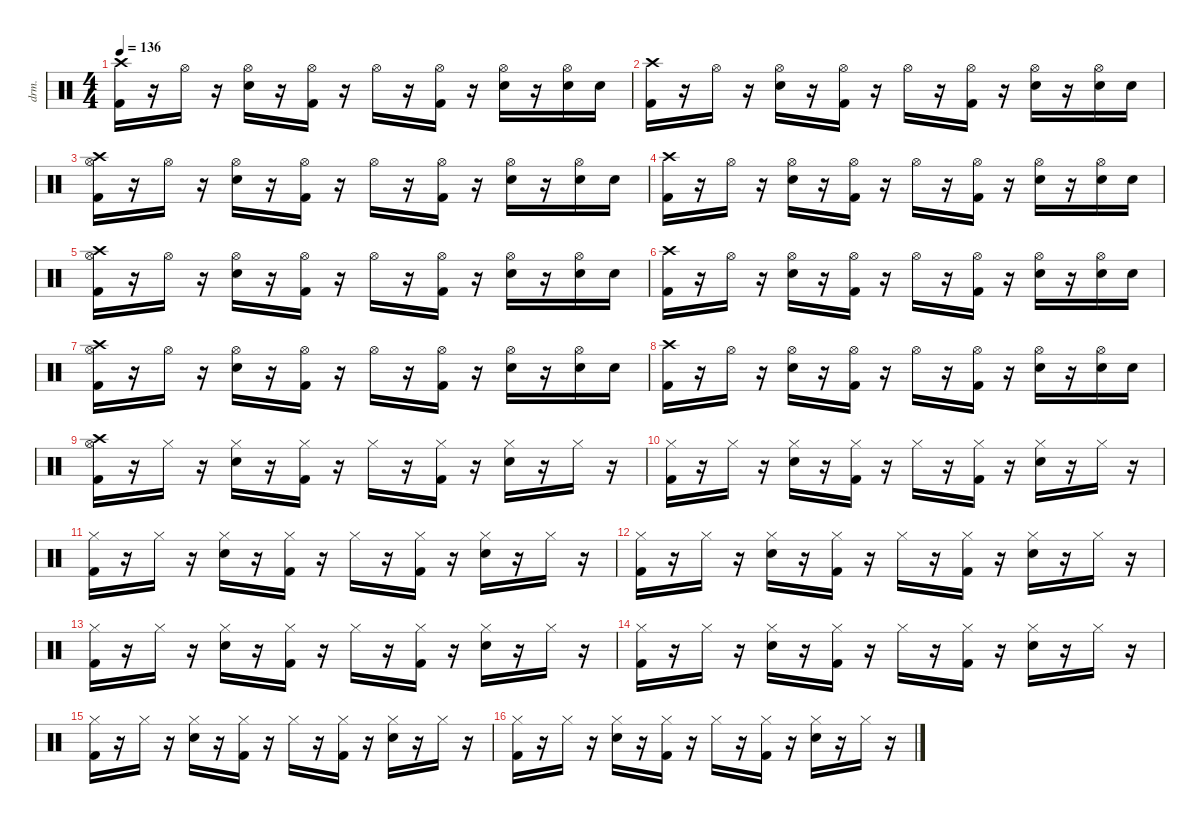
\defaultSystemsLayout 4
\hideDynamics
\bracketExtendMode nobrackets
\otherSystemsTrackNameOrientation horizontal
\track ("Drums" "drm.") {instrument percussion}
\staff {score}
\articulation defaults
\ts (4 4)
\tempo 136
\clef neutral
\ks c
("Kick (hit) 2" "Crash high (hit)").16{dy f} r.16 "Hi-Hat (open)".16 r.16 ("Snare (hit) 2" "Hi-Hat (open)").16 r.16 ("Kick (hit) 2" "Hi-Hat (open)").16 r.16 "Hi-Hat (open)".16 r.16 ("Kick (hit) 2" "Hi-Hat (open)").16 r.16 ("Snare (hit) 2" "Hi-Hat (open)").16 r.16 ("Snare (hit) 2" "Hi-Hat (open)").16 "Snare (hit) 2".16 |
("Kick (hit) 2" "Crash high (hit)").16 r.16 "Hi-Hat (open)".16 r.16 ("Snare (hit) 2" "Hi-Hat (open)").16 r.16 ("Kick (hit) 2" "Hi-Hat (open)").16 r.16 "Hi-Hat (open)".16 r.16 ("Kick (hit) 2" "Hi-Hat (open)").16 r.16 ("Snare (hit) 2" "Hi-Hat (open)").16 r.16 ("Snare (hit) 2" "Hi-Hat (open)").16 "Snare (hit) 2".16 |
("Kick (hit) 2" "Hi-Hat (open)" "Crash high (hit)").16 r.16 "Hi-Hat (open)".16 r.16 ("Snare (hit) 2" "Hi-Hat (open)").16 r.16 ("Kick (hit) 2" "Hi-Hat (open)").16 r.16 "Hi-Hat (open)".16 r.16 ("Kick (hit) 2" "Hi-Hat (open)").16 r.16 ("Snare (hit) 2" "Hi-Hat (open)").16 r.16 ("Snare (hit) 2" "Hi-Hat (open)").16 "Snare (hit) 2".16 |
("Kick (hit) 2" "Crash high (hit)").16 r.16 "Hi-Hat (open)".16 r.16 ("Snare (hit) 2" "Hi-Hat (open)").16 r.16 ("Kick (hit) 2" "Hi-Hat (open)").16 r.16 "Hi-Hat (open)".16 r.16 ("Kick (hit) 2" "Hi-Hat (open)").16 r.16 ("Snare (hit) 2" "Hi-Hat (open)").16 r.16 ("Snare (hit) 2" "Hi-Hat (open)").16 "Snare (hit) 2".16 |
("Kick (hit) 2" "Hi-Hat (open)" "Crash high (hit)").16 r.16 "Hi-Hat (open)".16 r.16 ("Snare (hit) 2" "Hi-Hat (open)").16 r.16 ("Kick (hit) 2" "Hi-Hat (open)").16 r.16 "Hi-Hat (open)".16 r.16 ("Kick (hit) 2" "Hi-Hat (open)").16 r.16 ("Snare (hit) 2" "Hi-Hat (open)").16 r.16 ("Snare (hit) 2" "Hi-Hat (open)").16 "Snare (hit) 2".16 |
("Kick (hit) 2" "Crash high (hit)").16 r.16 "Hi-Hat (open)".16 r.16 ("Snare (hit) 2" "Hi-Hat (open)").16 r.16 ("Kick (hit) 2" "Hi-Hat (open)").16 r.16 "Hi-Hat (open)".16 r.16 ("Kick (hit) 2" "Hi-Hat (open)").16 r.16 ("Snare (hit) 2" "Hi-Hat (open)").16 r.16 ("Snare (hit) 2" "Hi-Hat (open)").16 "Snare (hit) 2".16 |
("Kick (hit) 2" "Hi-Hat (open)" "Crash high (hit)").16 r.16 "Hi-Hat (open)".16 r.16 ("Snare (hit) 2" "Hi-Hat (open)").16 r.16 ("Kick (hit) 2" "Hi-Hat (open)").16 r.16 "Hi-Hat (open)".16 r.16 ("Kick (hit) 2" "Hi-Hat (open)").16 r.16 ("Snare (hit) 2" "Hi-Hat (open)").16 r.16 ("Snare (hit) 2" "Hi-Hat (open)").16 "Snare (hit) 2".16 |
("Kick (hit) 2" "Crash high (hit)").16 r.16 "Hi-Hat (open)".16 r.16 ("Snare (hit) 2" "Hi-Hat (open)").16 r.16 ("Kick (hit) 2" "Hi-Hat (open)").16 r.16 "Hi-Hat (open)".16 r.16 ("Kick (hit) 2" "Hi-Hat (open)").16 r.16 ("Snare (hit) 2" "Hi-Hat (open)").16 r.16 ("Snare (hit) 2" "Hi-Hat (open)").16 "Snare (hit) 2".16 |
("Kick (hit) 2" "Hi-Hat (open)" "Crash high (hit)").16 r.16 "Hi-Hat (closed)".16 r.16 ("Snare (hit) 2" "Hi-Hat (closed)").16 r.16 ("Kick (hit) 2" "Hi-Hat (closed)").16 r.16 "Hi-Hat (closed)".16 r.16 ("Kick (hit) 2" "Hi-Hat (closed)").16 r.16 ("Snare (hit) 2" "Hi-Hat (closed)").16 r.16 "Hi-Hat (closed)".16 r.16 |
("Kick (hit) 2" "Hi-Hat (closed)").16 r.16 "Hi-Hat (closed)".16 r.16 ("Snare (hit) 2" "Hi-Hat (closed)").16 r.16 ("Kick (hit) 2" "Hi-Hat (closed)").16 r.16 "Hi-Hat (closed)".16 r.16 ("Kick (hit) 2" "Hi-Hat (closed)").16 r.16 ("Snare (hit) 2" "Hi-Hat (closed)").16 r.16 "Hi-Hat (closed)".16 r.16 |
("Kick (hit) 2" "Hi-Hat (closed)").16 r.16 "Hi-Hat (closed)".16 r.16 ("Snare (hit) 2" "Hi-Hat (closed)").16 r.16 ("Kick (hit) 2" "Hi-Hat (closed)").16 r.16 "Hi-Hat (closed)".16 r.16 ("Kick (hit) 2" "Hi-Hat (closed)").16 r.16 ("Snare (hit) 2" "Hi-Hat (closed)").16 r.16 "Hi-Hat (closed)".16 r.16 |
("Kick (hit) 2" "Hi-Hat (closed)").16 r.16 "Hi-Hat (closed)".16 r.16 ("Snare (hit) 2" "Hi-Hat (closed)").16 r.16 ("Kick (hit) 2" "Hi-Hat (closed)").16 r.16 "Hi-Hat (closed)".16 r.16 ("Kick (hit) 2" "Hi-Hat (closed)").16 r.16 ("Snare (hit) 2" "Hi-Hat (closed)").16 r.16 "Hi-Hat (closed)".16 r.16 |
("Kick (hit) 2" "Hi-Hat (closed)").16 r.16 "Hi-Hat (closed)".16 r.16 ("Snare (hit) 2" "Hi-Hat (closed)").16 r.16 ("Kick (hit) 2" "Hi-Hat (closed)").16 r.16 "Hi-Hat (closed)".16 r.16 ("Kick (hit) 2" "Hi-Hat (closed)").16 r.16 ("Snare (hit) 2" "Hi-Hat (closed)").16 r.16 "Hi-Hat (closed)".16 r.16 |
("Kick (hit) 2" "Hi-Hat (closed)").16 r.16 "Hi-Hat (closed)".16 r.16 ("Snare (hit) 2" "Hi-Hat (closed)").16 r.16 ("Kick (hit) 2" "Hi-Hat (closed)").16 r.16 "Hi-Hat (closed)".16 r.16 ("Kick (hit) 2" "Hi-Hat (closed)").16 r.16 ("Snare (hit) 2" "Hi-Hat (closed)").16 r.16 "Hi-Hat (closed)".16 r.16 |
("Kick (hit) 2" "Hi-Hat (closed)").16 r.16 "Hi-Hat (closed)".16 r.16 ("Snare (hit) 2" "Hi-Hat (closed)").16 r.16 ("Kick (hit) 2" "Hi-Hat (closed)").16 r.16 "Hi-Hat (closed)".16 r.16 ("Kick (hit) 2" "Hi-Hat (closed)").16 r.16 ("Snare (hit) 2" "Hi-Hat (closed)").16 r.16 "Hi-Hat (closed)".16 r.16 |
("Kick (hit) 2" "Hi-Hat (closed)").16 r.16 "Hi-Hat (closed)".16 r.16 ("Snare (hit) 2" "Hi-Hat (closed)").16 r.16 ("Kick (hit) 2" "Hi-Hat (closed)").16 r.16 "Hi-Hat (closed)".16 r.16 ("Kick (hit) 2" "Hi-Hat (closed)").16 r.16 ("Snare (hit) 2" "Hi-Hat (closed)").16 r.16 "Hi-Hat (closed)".16 r.16
